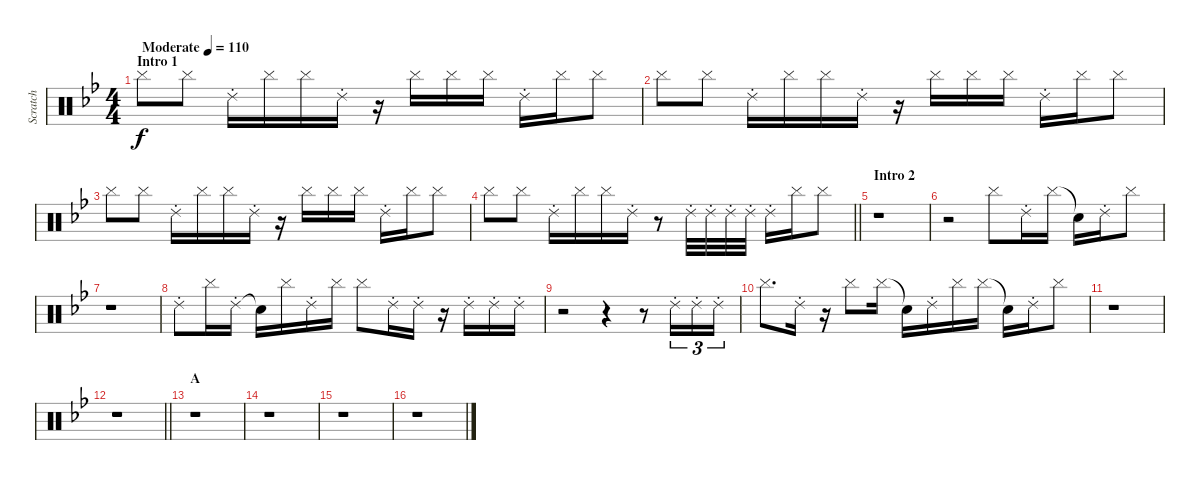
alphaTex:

\track ("Scratch" "Scratch") {instrument percussion}
\staff {score}
\articulation defaults
\ts (4 4)
\section ("" "Intro 1")
\tempo (110 "Moderate")
\clef neutral
\ks bb "Cymbal (hit)".8{dy f} "Cymbal (hit)".8 "Ride (choke) 2".16 "Cymbal (hit)".16 "Cymbal (hit)".16 "Ride (choke) 2".16
r.16 "Cymbal (hit)".16 "Cymbal (hit)".16 "Cymbal (hit)".16 "Ride (choke) 2".16 "Cymbal (hit)".16 "Cymbal (hit)".8 |
"Cymbal (hit)".8 "Cymbal (hit)".8 "Ride (choke) 2".16 "Cymbal (hit)".16 "Cymbal (hit)".16 "Ride (choke) 2".16 r.16 "Cymbal (hit)".16 "Cymbal (hit)".16 "Cymbal (hit)".16 "Ride (choke) 2".16 "Cymbal (hit)".16 "Cymbal (hit)".8 |
"Cymbal (hit)".8 "Cymbal (hit)".8 "Ride (choke) 2".16 "Cymbal (hit)".16 "Cymbal (hit)".16 "Ride (choke) 2".16 r.16 "Cymbal (hit)".16 "Cymbal (hit)".16 "Cymbal (hit)".16 "Ride (choke) 2".16 "Cymbal (hit)".16 "Cymbal (hit)".8 |
\barLineRight lightlight "Cymbal (hit)".8 "Cymbal (hit)".8 "Ride (choke) 2".16 "Cymbal (hit)".16 "Cymbal (hit)".16 "Ride (choke) 2".16
r.8 "Ride (choke) 2".32 "Ride (choke) 2".32 "Ride (choke) 2".32 "Ride (choke) 2".32 "Ride (choke) 2".16 "Cymbal (hit)".16 "Cymbal (hit)".8 |
\section ("" "Intro 2")
r.1 |
r.2 "Cymbal (hit)".8 "Ride (choke) 2".16 "Cymbal (hit)".16 "Snare (hit)"{t}.16 "Ride (choke) 2".16 "Cymbal (hit)".8 |
r.1 |
"Ride (choke) 2".8 "Cymbal (hit)".16 "Ride (choke) 2".16 "Snare (hit)"{t}.16 "Cymbal (hit)".16 "Ride (choke) 2".16 "Cymbal (hit)".16 "Cymbal (hit)".8 "Ride (choke) 2".16 "Ride (choke) 2".16 r.16 "Ride (choke) 2".16 "Ride (choke) 2".16 "Ride (choke) 2".16 |
r.2 r.4 r.8 "Ride (choke) 2".16{tu (3 2)} "Ride (choke) 2".16{tu (3 2)} "Ride (choke) 2".16{tu (3 2)} |
"Cymbal (hit)".8{d} "Ride (choke) 2".16 r.16 "Cymbal (hit)".8 "Cymbal (hit)".16 "Snare (hit)"{t}.16 "Ride (choke) 2".16 "Cymbal (hit)".16 "Cymbal (hit)".16 "Snare (hit)"{t}.16 "Ride (choke) 2".16 "Cymbal (hit)".8 |
r.1 |
\barLineRight lightlight
r.1 |
\section ("" "A")
r.1 |
r.1 |
r.1 |
r.1
